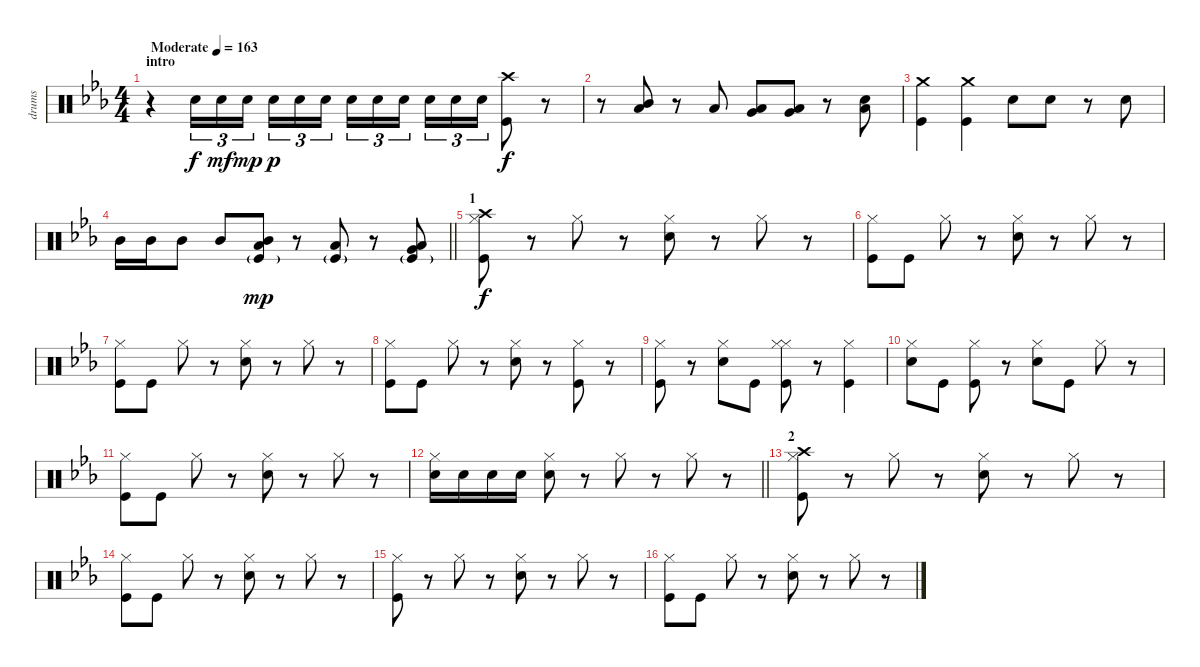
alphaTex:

\track ("drums" "drums") {instrument percussion}
\staff {score}
\articulation defaults
\ts (4 4)
\section ("" "intro")
\tempo (163 "Moderate")
\clef neutral
\ks cminor
r.4{dy f} "Electric Snare (hit)".16{tu (3 2)} "Electric Snare (hit)".16{tu (3 2) dy mf} "Electric Snare (hit)".16{tu (3 2) dy mp beam splitsecondary} "Electric Snare (hit)".16{tu (3 2) dy p} "Electric Snare (hit)".16{tu (3 2)} "Electric Snare (hit)".16{tu (3 2)} "Electric Snare (hit)".16{tu (3 2)} "Electric Snare (hit)".16{tu (3 2)} "Electric Snare (hit)".16{tu (3 2) beam splitsecondary} "Electric Snare (hit)".16{tu (3 2)} "Electric Snare (hit)".16{tu (3 2)} "Electric Snare (hit)".16{tu (3 2)} ("Crash high (hit)" "Kick (hit)").8{dy f} r.8 |
r.8 ("Mid Tom (hit)" "Low Tom (hit)").8 r.8 "Low Tom (hit)".8 ("Low Tom (hit)" "Very Low Tom (hit)").8 ("Low Tom (hit)" "Very Low Tom (hit)").8 r.8 ("Low Tom (hit)" "Electric Snare (hit)").8 |
("Crash medium (hit)" "Kick (hit)").4 ("Crash medium (hit)" "Kick (hit)").4 "Electric Snare (hit)".8 "Electric Snare (hit)".8 r.8 "Electric Snare (hit)".8 |
\barLineRight lightlight "Mid Tom (hit)".16 "Mid Tom (hit)".16 "Mid Tom (hit)".8 "Mid Tom (hit)".8
("Mid Tom (hit)" "Low Tom (hit)" "Kick (hit)"{g}).8{dy mp} r.8 ("Low Tom (hit)" "Kick (hit)"{g}).8 r.8 ("Low Tom (hit)" "Very Low Tom (hit)" "Kick (hit)"{g}).8 |
\section ("" "1")
("Crash high (hit)" "Kick (hit)" "Hi-Hat (closed)").8{dy f} r.8 "Hi-Hat (closed)".8 r.8 ("Electric Snare (hit)" "Hi-Hat (closed)").8 r.8 "Hi-Hat (closed)".8 r.8 |
("Kick (hit)" "Hi-Hat (closed)").8 "Kick (hit)".8 "Hi-Hat (closed)".8 r.8 ("Electric Snare (hit)" "Hi-Hat (closed)").8 r.8 "Hi-Hat (closed)".8 r.8 |
("Kick (hit)" "Hi-Hat (closed)").8 "Kick (hit)".8 "Hi-Hat (closed)".8 r.8 ("Electric Snare (hit)" "Hi-Hat (closed)").8 r.8 "Hi-Hat (closed)".8 r.8 |
("Kick (hit)" "Hi-Hat (closed)").8 "Kick (hit)".8 "Hi-Hat (closed)".8 r.8 ("Electric Snare (hit)" "Hi-Hat (closed)").8 r.8 ("Kick (hit)" "Hi-Hat (closed)").8 r.8 |
("Kick (hit)" "Hi-Hat (closed)").8 r.8 ("Electric Snare (hit)" "Hi-Hat (closed)").8 "Kick (hit)".8 ("Kick (hit)" "Hi-Hat (closed)" "Hi-Hat (closed)").8 r.8 ("Kick (hit)" "Hi-Hat (closed)").4 |
("Electric Snare (hit)" "Hi-Hat (closed)").8 "Kick (hit)".8 ("Kick (hit)" "Hi-Hat (closed)").8 r.8 ("Electric Snare (hit)" "Hi-Hat (closed)").8 "Kick (hit)".8 "Hi-Hat (closed)".8 r.8 |
("Kick (hit)" "Hi-Hat (closed)").8 "Kick (hit)".8 "Hi-Hat (closed)".8 r.8 ("Electric Snare (hit)" "Hi-Hat (closed)").8 r.8 "Hi-Hat (closed)".8 r.8 |
\barLineRight lightlight
("Electric Snare (hit)" "Hi-Hat (closed)").16 "Electric Snare (hit)".16 "Electric Snare (hit)".16 "Electric Snare (hit)".16 ("Electric Snare (hit)" "Hi-Hat (closed)").8 r.8 "Hi-Hat (closed)".8 r.8 "Hi-Hat (closed)".8 r.8 |
\section ("" "2")
("Kick (hit)" "Hi-Hat (closed)" "Crash high (hit)").8 r.8 "Hi-Hat (closed)".8 r.8 ("Electric Snare (hit)" "Hi-Hat (closed)").8 r.8 "Hi-Hat (closed)".8 r.8 |
("Kick (hit)" "Hi-Hat (closed)").8 "Kick (hit)".8 "Hi-Hat (closed)".8 r.8 ("Electric Snare (hit)" "Hi-Hat (closed)").8 r.8 "Hi-Hat (closed)".8 r.8 |
("Kick (hit)" "Hi-Hat (closed)").8 r.8 "Hi-Hat (closed)".8 r.8 ("Electric Snare (hit)" "Hi-Hat (closed)").8 r.8 "Hi-Hat (closed)".8 r.8 |
("Kick (hit)" "Hi-Hat (closed)").8 "Kick (hit)".8 "Hi-Hat (closed)".8 r.8 ("Electric Snare (hit)" "Hi-Hat (closed)").8 r.8 "Hi-Hat (closed)".8 r.8
